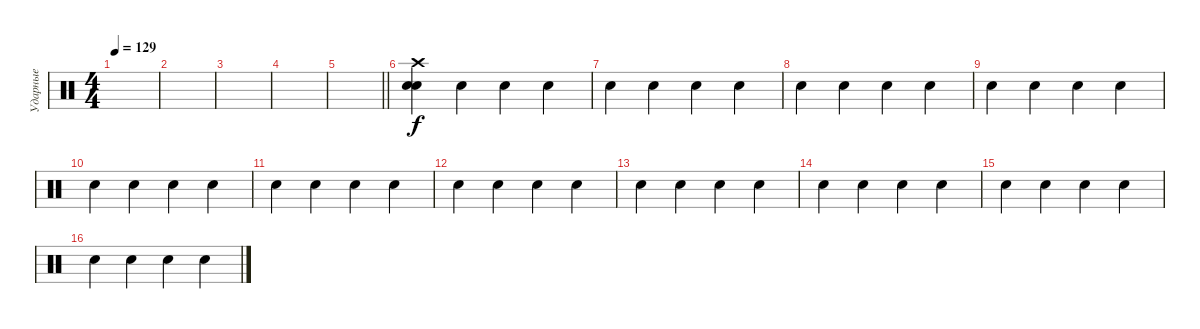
\track ("Ударные" "Ударные") {instrument percussion}
\staff {score}
\articulation defaults
\ts (4 4)
\tempo 129
\clef neutral
\ks c
|
|
|
|
\barLineRight lightlight
|
("Snare (hit) 2" "Snare (hit) 2" "Crash high (hit)").4 "Hand Clap (hit)".4{dy f} "Hand Clap (hit)".4 "Hand Clap (hit)".4 |
"Hand Clap (hit)".4 "Hand Clap (hit)".4 "Hand Clap (hit)".4 "Hand Clap (hit)".4 |
"Hand Clap (hit)".4 "Hand Clap (hit)".4 "Hand Clap (hit)".4 "Hand Clap (hit)".4 |
"Hand Clap (hit)".4 "Hand Clap (hit)".4 "Hand Clap (hit)".4 "Hand Clap (hit)".4 |
"Hand Clap (hit)".4 "Hand Clap (hit)".4 "Hand Clap (hit)".4 "Hand Clap (hit)".4 |
"Hand Clap (hit)".4 "Hand Clap (hit)".4 "Hand Clap (hit)".4 "Hand Clap (hit)".4 |
"Hand Clap (hit)".4 "Hand Clap (hit)".4 "Hand Clap (hit)".4 "Hand Clap (hit)".4 |
"Hand Clap (hit)".4 "Hand Clap (hit)".4 "Hand Clap (hit)".4 "Hand Clap (hit)".4 |
"Hand Clap (hit)".4 "Hand Clap (hit)".4 "Hand Clap (hit)".4 "Hand Clap (hit)".4 |
"Hand Clap (hit)".4 "Hand Clap (hit)".4 "Hand Clap (hit)".4 "Hand Clap (hit)".4 |
"Hand Clap (hit)".4 "Hand Clap (hit)".4 "Hand Clap (hit)".4 "Hand Clap (hit)".4
